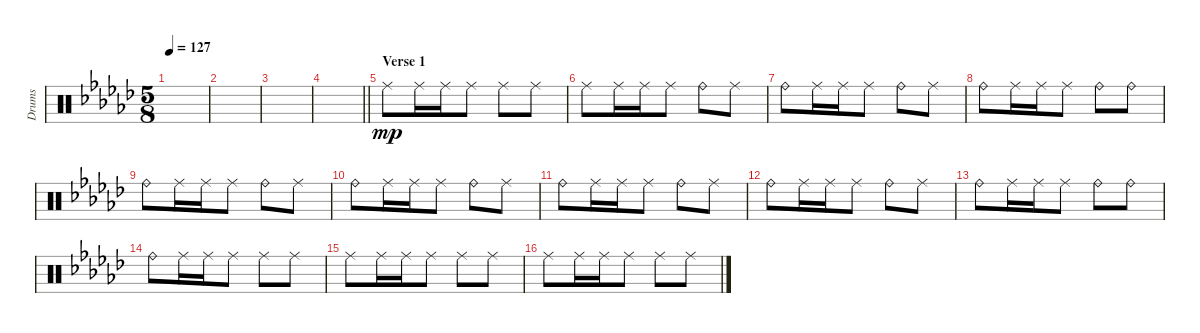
\track ("Drums" "Drums") {instrument percussion}
\staff {score}
\articulation defaults
\ts (5 8)
\tempo 127
\clef neutral
\ks ebminor
|
|
|
\barLineRight lightlight
|
\section ("" "Verse 1")
"Ride (middle)".8{dy mp} "Ride (middle)".16 "Ride (middle)".16 "Ride (middle)".8 "Ride (middle)".8 "Ride (middle)".8 |
"Ride (middle)".8 "Ride (middle)".16 "Ride (middle)".16 "Ride (middle)".8 "Ride (bell)".8 "Ride (middle)".8 |
"Ride (bell)".8 "Ride (middle)".16 "Ride (middle)".16 "Ride (middle)".8 "Ride (bell)".8 "Ride (middle)".8 |
"Ride (bell)".8 "Ride (middle)".16 "Ride (middle)".16 "Ride (middle)".8 "Ride (bell)".8 "Ride (bell)".8 |
"Ride (bell)".8 "Ride (middle)".16 "Ride (middle)".16 "Ride (middle)".8 "Ride (bell)".8 "Ride (middle)".8 |
"Ride (bell)".8 "Ride (middle)".16 "Ride (middle)".16 "Ride (middle)".8 "Ride (bell)".8 "Ride (middle)".8 |
"Ride (bell)".8 "Ride (middle)".16 "Ride (middle)".16 "Ride (middle)".8 "Ride (bell)".8 "Ride (middle)".8 |
"Ride (bell)".8 "Ride (middle)".16 "Ride (middle)".16 "Ride (middle)".8 "Ride (bell)".8 "Ride (middle)".8 |
"Ride (bell)".8 "Ride (middle)".16 "Ride (middle)".16 "Ride (middle)".8 "Ride (bell)".8 "Ride (bell)".8 |
"Ride (bell)".8 "Ride (middle)".16 "Ride (middle)".16 "Ride (middle)".8 "Ride (middle)".8 "Ride (middle)".8 |
"Ride (middle)".8 "Ride (middle)".16 "Ride (middle)".16 "Ride (middle)".8 "Ride (middle)".8 "Ride (middle)".8 |
"Ride (middle)".8 "Ride (middle)".16 "Ride (middle)".16 "Ride (middle)".8 "Ride (middle)".8 "Ride (middle)".8
